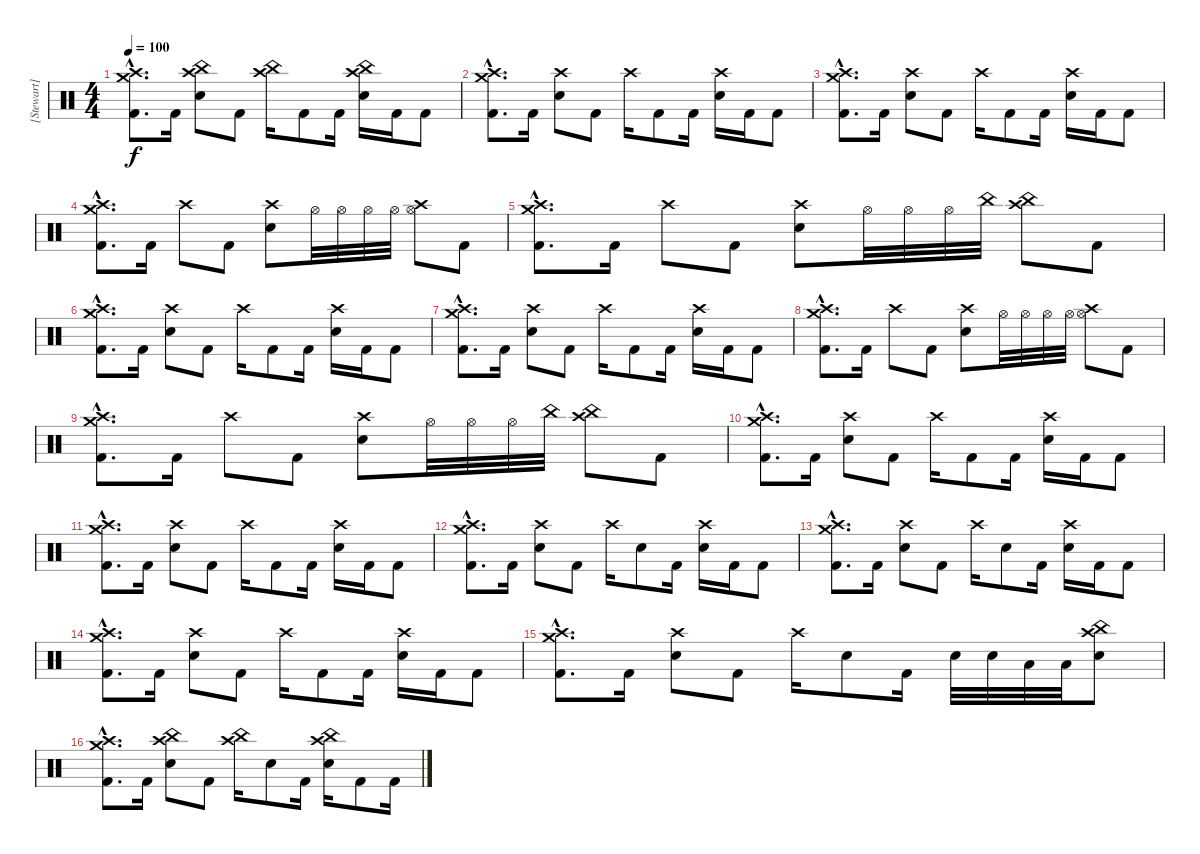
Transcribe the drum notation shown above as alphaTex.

\track ("[Stewart]" "[Stewart]") {instrument percussion}
\staff {score}
\articulation defaults
\ts (4 4)
\tempo 100
\clef neutral
\ks c
("Crash high (hit)"{hac} "Crash medium (hit)"{hac} "Kick (hit) 2"{hac}).8{d dy f} "Kick (hit) 2".16 ("Crash high (hit)" "China (hit)" "Electric Snare (hit)").8 "Kick (hit) 2".8 ("Crash high (hit)" "China (hit)").16 "Kick (hit) 2".8 "Kick (hit) 2".16 ("Crash high (hit)" "China (hit)" "Electric Snare (hit)").16 "Kick (hit) 2".16 "Kick (hit) 2".8 |
("Crash high (hit)"{hac} "Crash medium (hit)"{hac} "Kick (hit) 2"{hac}).8{d} "Kick (hit) 2".16 ("Crash high (hit)" "Electric Snare (hit)").8 "Kick (hit) 2".8 "Crash high (hit)".16 "Kick (hit) 2".8 "Kick (hit) 2".16 ("Crash high (hit)" "Electric Snare (hit)").16 "Kick (hit) 2".16 "Kick (hit) 2".8 |
("Crash high (hit)"{hac} "Crash medium (hit)"{hac} "Kick (hit) 2"{hac}).8{d} "Kick (hit) 2".16 ("Crash high (hit)" "Electric Snare (hit)").8 "Kick (hit) 2".8 "Crash high (hit)".16 "Kick (hit) 2".8 "Kick (hit) 2".16 ("Crash high (hit)" "Electric Snare (hit)").16 "Kick (hit) 2".16 "Kick (hit) 2".8 |
("Crash high (hit)"{hac} "Crash medium (hit)"{hac} "Kick (hit) 2"{hac}).8{d} "Kick (hit) 2".16 "Crash high (hit)".8 "Kick (hit) 2".8 ("Crash high (hit)" "Electric Snare (hit)").8 "Hi-Hat (open)".32 "Hi-Hat (open)".32 "Hi-Hat (open)".32 "Hi-Hat (open)".32 ("Hi-Hat (open)" "Crash high (hit)").8 "Kick (hit) 2".8 |
("Crash high (hit)"{hac} "Crash medium (hit)"{hac} "Kick (hit) 2"{hac}).8{d} "Kick (hit) 2".16 "Crash high (hit)".8 "Kick (hit) 2".8 ("Crash high (hit)" "Electric Snare (hit)").8 "Hi-Hat (open)".32 "Hi-Hat (open)".32 "Hi-Hat (open)".32 "China (hit)".32 ("China (hit)" "Crash high (hit)").8 "Kick (hit) 2".8 |
("Crash high (hit)"{hac} "Crash medium (hit)"{hac} "Kick (hit) 2"{hac}).8{d} "Kick (hit) 2".16 ("Crash high (hit)" "Electric Snare (hit)").8 "Kick (hit) 2".8 "Crash high (hit)".16 "Kick (hit) 2".8 "Kick (hit) 2".16 ("Crash high (hit)" "Electric Snare (hit)").16 "Kick (hit) 2".16 "Kick (hit) 2".8 |
("Crash high (hit)"{hac} "Crash medium (hit)"{hac} "Kick (hit) 2"{hac}).8{d} "Kick (hit) 2".16 ("Crash high (hit)" "Electric Snare (hit)").8 "Kick (hit) 2".8 "Crash high (hit)".16 "Kick (hit) 2".8 "Kick (hit) 2".16 ("Crash high (hit)" "Electric Snare (hit)").16 "Kick (hit) 2".16 "Kick (hit) 2".8 |
("Crash high (hit)"{hac} "Crash medium (hit)"{hac} "Kick (hit) 2"{hac}).8{d} "Kick (hit) 2".16 "Crash high (hit)".8 "Kick (hit) 2".8 ("Crash high (hit)" "Electric Snare (hit)").8 "Hi-Hat (open)".32 "Hi-Hat (open)".32 "Hi-Hat (open)".32 "Hi-Hat (open)".32 ("Hi-Hat (open)" "Crash high (hit)").8 "Kick (hit) 2".8 |
("Crash high (hit)"{hac} "Crash medium (hit)"{hac} "Kick (hit) 2"{hac}).8{d} "Kick (hit) 2".16 "Crash high (hit)".8 "Kick (hit) 2".8 ("Crash high (hit)" "Electric Snare (hit)").8 "Hi-Hat (open)".32 "Hi-Hat (open)".32 "Hi-Hat (open)".32 "China (hit)".32 ("China (hit)" "Crash high (hit)").8 "Kick (hit) 2".8 |
("Crash high (hit)"{hac} "Crash medium (hit)"{hac} "Kick (hit) 2"{hac}).8{d} "Kick (hit) 2".16 ("Crash high (hit)" "Electric Snare (hit)").8 "Kick (hit) 2".8 "Crash high (hit)".16 "Kick (hit) 2".8 "Kick (hit) 2".16 ("Crash high (hit)" "Electric Snare (hit)").16 "Kick (hit) 2".16 "Kick (hit) 2".8 |
("Crash high (hit)"{hac} "Crash medium (hit)"{hac} "Kick (hit) 2"{hac}).8{d} "Kick (hit) 2".16 ("Crash high (hit)" "Electric Snare (hit)").8 "Kick (hit) 2".8 "Crash high (hit)".16 "Kick (hit) 2".8 "Kick (hit) 2".16 ("Crash high (hit)" "Electric Snare (hit)").16 "Kick (hit) 2".16 "Kick (hit) 2".8 |
("Crash high (hit)"{hac} "Crash medium (hit)"{hac} "Kick (hit) 2"{hac}).8{d} "Kick (hit) 2".16 ("Crash high (hit)" "Electric Snare (hit)").8 "Kick (hit) 2".8 "Crash high (hit)".16 "Electric Snare (hit)".8 "Kick (hit) 2".16 ("Crash high (hit)" "Electric Snare (hit)").16 "Kick (hit) 2".16 "Kick (hit) 2".8 |
("Crash high (hit)"{hac} "Crash medium (hit)"{hac} "Kick (hit) 2"{hac}).8{d} "Kick (hit) 2".16 ("Crash high (hit)" "Electric Snare (hit)").8 "Kick (hit) 2".8 "Crash high (hit)".16 "Electric Snare (hit)".8 "Kick (hit) 2".16 ("Crash high (hit)" "Electric Snare (hit)").16 "Kick (hit) 2".16 "Kick (hit) 2".8 |
("Crash high (hit)"{hac} "Crash medium (hit)"{hac} "Kick (hit) 2"{hac}).8{d} "Kick (hit) 2".16 ("Crash high (hit)" "Electric Snare (hit)").8 "Kick (hit) 2".8 "Crash high (hit)".16 "Kick (hit) 2".8 "Kick (hit) 2".16 ("Crash high (hit)" "Electric Snare (hit)").16 "Kick (hit) 2".16 "Kick (hit) 2".8 |
("Crash high (hit)"{hac} "Crash medium (hit)"{hac} "Kick (hit) 2"{hac}).8{d} "Kick (hit) 2".16 ("Crash high (hit)" "Electric Snare (hit)").8 "Kick (hit) 2".8 "Crash high (hit)".16 "Electric Snare (hit)".8 "Kick (hit) 2".16 "Electric Snare (hit)".32 "Electric Snare (hit)".32 "Low Tom (hit)".32 "Low Tom (hit)".32 ("Crash high (hit)" "China (hit)" "Electric Snare (hit)").8 |
("Crash high (hit)"{hac} "Crash medium (hit)"{hac} "Kick (hit) 2"{hac}).8{d} "Kick (hit) 2".16 ("Crash high (hit)" "China (hit)" "Electric Snare (hit)").8 "Kick (hit) 2".8 ("Crash high (hit)" "China (hit)").16 "Electric Snare (hit)".8 "Kick (hit) 2".16 ("Crash high (hit)" "China (hit)" "Electric Snare (hit)").16 "Kick (hit) 2".8 "Kick (hit) 2".16
